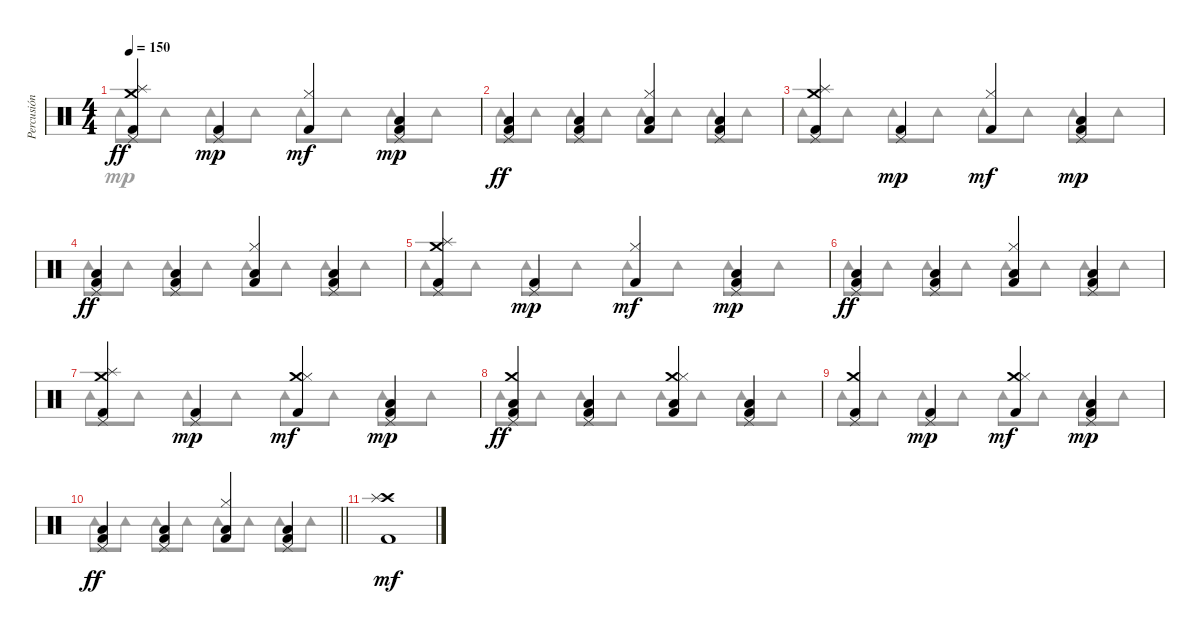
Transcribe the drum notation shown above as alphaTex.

\track ("Percusión" "Percusión") {instrument percussion}
\staff {score}
\articulation defaults
\voice
\ts (4 4)
\tempo 150
\clef neutral
\ks c
("Crash medium (hit)" "Splash (hit)" "Pedal Hi-Hat (hit)" "Kick (hit) 2").4{dy ff} ("Pedal Hi-Hat (hit)" "Kick (hit) 2").4{dy mp} ("Hi-Hat (closed)" "Kick (hit) 2").4{dy mf} ("Pedal Hi-Hat (hit)" "Low Floor Tom (hit)" "Kick (hit) 2").4{dy mp} |
("Pedal Hi-Hat (hit)" "Low Floor Tom (hit)" "Kick (hit) 2").4{dy ff} ("Pedal Hi-Hat (hit)" "Low Floor Tom (hit)" "Kick (hit) 2").4 ("Hi-Hat (closed)" "Low Floor Tom (hit)" "Kick (hit) 2").4 ("Pedal Hi-Hat (hit)" "Low Floor Tom (hit)" "Kick (hit) 2").4 |
("Crash medium (hit)" "Splash (hit)" "Pedal Hi-Hat (hit)" "Kick (hit) 2").4 ("Pedal Hi-Hat (hit)" "Kick (hit) 2").4{dy mp} ("Hi-Hat (closed)" "Kick (hit) 2").4{dy mf} ("Pedal Hi-Hat (hit)" "Low Floor Tom (hit)" "Kick (hit) 2").4{dy mp} |
("Pedal Hi-Hat (hit)" "Low Floor Tom (hit)" "Kick (hit) 2").4{dy ff} ("Pedal Hi-Hat (hit)" "Low Floor Tom (hit)" "Kick (hit) 2").4 ("Hi-Hat (closed)" "Low Floor Tom (hit)" "Kick (hit) 2").4 ("Pedal Hi-Hat (hit)" "Low Floor Tom (hit)" "Kick (hit) 2").4 |
("Crash medium (hit)" "Splash (hit)" "Pedal Hi-Hat (hit)" "Kick (hit) 2").4 ("Pedal Hi-Hat (hit)" "Kick (hit) 2").4{dy mp} ("Hi-Hat (closed)" "Kick (hit) 2").4{dy mf} ("Pedal Hi-Hat (hit)" "Low Floor Tom (hit)" "Kick (hit) 2").4{dy mp} |
("Pedal Hi-Hat (hit)" "Low Floor Tom (hit)" "Kick (hit) 2").4{dy ff} ("Pedal Hi-Hat (hit)" "Low Floor Tom (hit)" "Kick (hit) 2").4 ("Hi-Hat (closed)" "Low Floor Tom (hit)" "Kick (hit) 2").4 ("Pedal Hi-Hat (hit)" "Low Floor Tom (hit)" "Kick (hit) 2").4 |
("Crash medium (hit)" "Splash (hit)" "Pedal Hi-Hat (hit)" "Kick (hit) 2").4 ("Pedal Hi-Hat (hit)" "Kick (hit) 2").4{dy mp} ("Crash medium (hit)" "Hi-Hat (closed)" "Kick (hit) 2").4{dy mf} ("Pedal Hi-Hat (hit)" "Low Floor Tom (hit)" "Kick (hit) 2").4{dy mp} |
("Crash medium (hit)" "Pedal Hi-Hat (hit)" "Low Floor Tom (hit)" "Kick (hit) 2").4{dy ff} ("Pedal Hi-Hat (hit)" "Low Floor Tom (hit)" "Kick (hit) 2").4 ("Crash medium (hit)" "Hi-Hat (closed)" "Low Floor Tom (hit)" "Kick (hit) 2").4 ("Pedal Hi-Hat (hit)" "Low Floor Tom (hit)" "Kick (hit) 2").4 |
("Crash medium (hit)" "Pedal Hi-Hat (hit)" "Kick (hit) 2").4 ("Pedal Hi-Hat (hit)" "Kick (hit) 2").4{dy mp} ("Crash medium (hit)" "Hi-Hat (closed)" "Kick (hit) 2").4{dy mf} ("Pedal Hi-Hat (hit)" "Low Floor Tom (hit)" "Kick (hit) 2").4{dy mp} |
\barLineRight lightlight
("Pedal Hi-Hat (hit)" "Low Floor Tom (hit)" "Kick (hit) 2").4{dy ff} ("Pedal Hi-Hat (hit)" "Low Floor Tom (hit)" "Kick (hit) 2").4 ("Hi-Hat (closed)" "Low Floor Tom (hit)" "Kick (hit) 2").4 ("Pedal Hi-Hat (hit)" "Low Floor Tom (hit)" "Kick (hit) 2").4 |
("Crash high (hit)" "Splash (hit)" "Kick (hit) 2").1{dy mf} |
|
|
|
|
\voice
\clef neutral
\ottava regular
\simile none
\ks c "Tambourine (hit)".8{dy mp} "Tambourine (hit)".8 "Tambourine (hit)".8 "Tambourine (hit)".8 "Tambourine (hit)".8 "Tambourine (hit)".8 "Tambourine (hit)".8 "Tambourine (hit)".8
|
"Tambourine (hit)".8 "Tambourine (hit)".8 "Tambourine (hit)".8 "Tambourine (hit)".8 "Tambourine (hit)".8 "Tambourine (hit)".8 "Tambourine (hit)".8 "Tambourine (hit)".8 |
"Tambourine (hit)".8 "Tambourine (hit)".8 "Tambourine (hit)".8 "Tambourine (hit)".8 "Tambourine (hit)".8 "Tambourine (hit)".8 "Tambourine (hit)".8 "Tambourine (hit)".8 |
"Tambourine (hit)".8 "Tambourine (hit)".8 "Tambourine (hit)".8 "Tambourine (hit)".8 "Tambourine (hit)".8 "Tambourine (hit)".8 "Tambourine (hit)".8 "Tambourine (hit)".8 |
"Tambourine (hit)".8 "Tambourine (hit)".8 "Tambourine (hit)".8 "Tambourine (hit)".8 "Tambourine (hit)".8 "Tambourine (hit)".8 "Tambourine (hit)".8 "Tambourine (hit)".8 |
"Tambourine (hit)".8 "Tambourine (hit)".8 "Tambourine (hit)".8 "Tambourine (hit)".8 "Tambourine (hit)".8 "Tambourine (hit)".8 "Tambourine (hit)".8 "Tambourine (hit)".8 |
"Tambourine (hit)".8 "Tambourine (hit)".8 "Tambourine (hit)".8 "Tambourine (hit)".8 "Tambourine (hit)".8 "Tambourine (hit)".8 "Tambourine (hit)".8 "Tambourine (hit)".8 |
"Tambourine (hit)".8 "Tambourine (hit)".8 "Tambourine (hit)".8 "Tambourine (hit)".8 "Tambourine (hit)".8 "Tambourine (hit)".8 "Tambourine (hit)".8 "Tambourine (hit)".8 |
"Tambourine (hit)".8 "Tambourine (hit)".8 "Tambourine (hit)".8 "Tambourine (hit)".8 "Tambourine (hit)".8 "Tambourine (hit)".8 "Tambourine (hit)".8 "Tambourine (hit)".8 |
\barLineRight lightlight "Tambourine (hit)".8 "Tambourine (hit)".8 "Tambourine (hit)".8 "Tambourine (hit)".8 "Tambourine (hit)".8 "Tambourine (hit)".8 "Tambourine (hit)".8 "Tambourine (hit)".8
|
|
|
|
|
|
